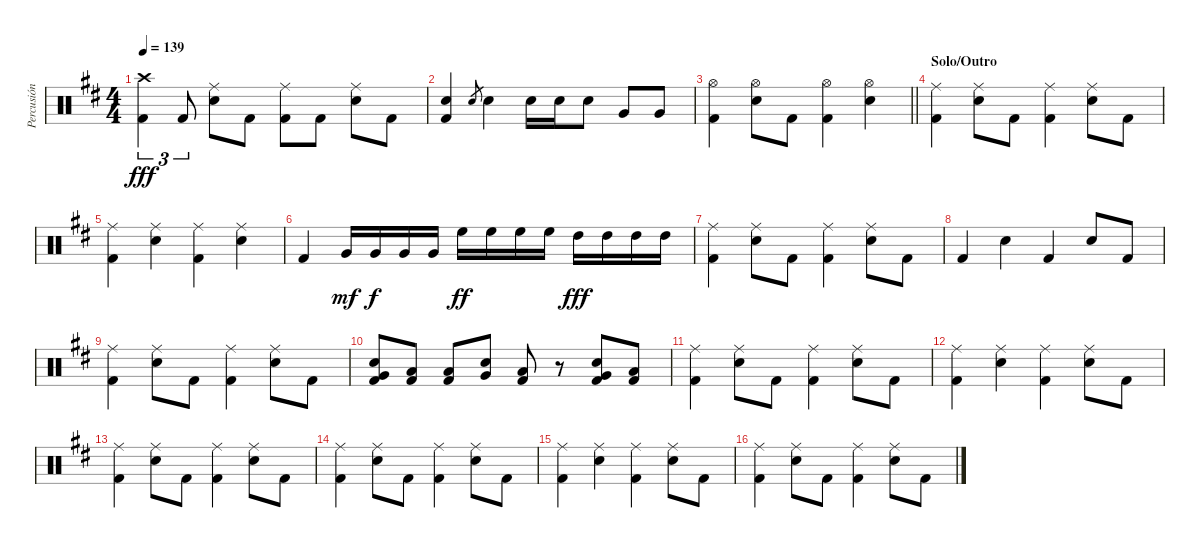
\track ("Percusión" "Percusión") {instrument percussion}
\staff {score}
\articulation defaults
\ts (4 4)
\tempo 139
\clef neutral
\ks d
("Crash high (hit)" "Kick (hit) 2").4{tu (3 2) dy fff} "Kick (hit) 2".8{tu (3 2)} ("Ride (middle)" "Electric Snare (hit)").8 "Kick (hit) 2".8 ("Ride (middle)" "Kick (hit) 2").8 "Kick (hit) 2".8 ("Ride (middle)" "Electric Snare (hit)").8 "Kick (hit) 2".8 |
("Electric Snare (hit)" "Kick (hit) 2").4 "Electric Snare (hit)".8{gr} "Electric Snare (hit)".4 "Electric Snare (hit)".16 "Electric Snare (hit)".16 "Electric Snare (hit)".8 "Very Low Tom (hit)".8 "Very Low Tom (hit)".8 |
\barLineRight lightlight
("Hi-Hat (open)" "Kick (hit) 2").4 ("Hi-Hat (open)" "Electric Snare (hit)").8 "Kick (hit) 2".8 ("Hi-Hat (open)" "Kick (hit) 2").4 ("Hi-Hat (open)" "Electric Snare (hit)").4 |
\section ("" "Solo/Outro")
("Ride (middle)" "Kick (hit) 2").4 ("Ride (middle)" "Electric Snare (hit)").8 "Kick (hit) 2".8 ("Ride (middle)" "Kick (hit) 2").4 ("Ride (middle)" "Electric Snare (hit)").8 "Kick (hit) 2".8 |
("Ride (middle)" "Kick (hit) 2").4 ("Ride (middle)" "Electric Snare (hit)").4 ("Ride (middle)" "Kick (hit) 2").4 ("Ride (middle)" "Electric Snare (hit)").4 |
"Kick (hit) 2".4 "Very Low Tom (hit)".16{dy mf} "Very Low Tom (hit)".16{dy f} "Very Low Tom (hit)".16 "Very Low Tom (hit)".16 "High Floor Tom (hit)".16{dy ff} "High Floor Tom (hit)".16 "High Floor Tom (hit)".16 "High Floor Tom (hit)".16 "High Tom (hit)".16{dy fff} "High Tom (hit)".16 "High Tom (hit)".16 "High Tom (hit)".16 |
("Ride (middle)" "Kick (hit) 2").4 ("Ride (middle)" "Electric Snare (hit)").8 "Kick (hit) 2".8 ("Ride (middle)" "Kick (hit) 2").4 ("Ride (middle)" "Electric Snare (hit)").8 "Kick (hit) 2".8 |
"Kick (hit) 2".4 "Electric Snare (hit)".4 "Kick (hit) 2".4 "Electric Snare (hit)".8 "Kick (hit) 2".8 |
("Ride (middle)" "Kick (hit) 2").4 ("Ride (middle)" "Electric Snare (hit)").8 "Kick (hit) 2".8 ("Ride (middle)" "Kick (hit) 2").4 ("Ride (middle)" "Electric Snare (hit)").8 "Kick (hit) 2".8 |
("Very Low Tom (hit)" "Kick (hit) 2" "Snare (hit) 2").8 ("Kick (hit) 2" "Low Floor Tom (hit)").8 ("Kick (hit) 2" "Low Floor Tom (hit)").8 ("Very Low Tom (hit)" "Snare (hit) 2").8 ("Kick (hit) 2" "Low Floor Tom (hit)").8 r.8 ("Snare (hit) 2" "Kick (hit) 2" "Very Low Tom (hit)").8 ("Kick (hit) 2" "Low Floor Tom (hit)").8 |
("Ride (middle)" "Kick (hit) 2").4 ("Ride (middle)" "Electric Snare (hit)").8 "Kick (hit) 2".8 ("Ride (middle)" "Kick (hit) 2").4 ("Ride (middle)" "Electric Snare (hit)").8 "Kick (hit) 2".8 |
("Ride (middle)" "Kick (hit) 2").4 ("Ride (middle)" "Electric Snare (hit)").4 ("Ride (middle)" "Kick (hit) 2").4 ("Ride (middle)" "Electric Snare (hit)").8 "Kick (hit) 2".8 |
("Ride (middle)" "Kick (hit) 2").4 ("Ride (middle)" "Electric Snare (hit)").8 "Kick (hit) 2".8 ("Ride (middle)" "Kick (hit) 2").4 ("Ride (middle)" "Electric Snare (hit)").8 "Kick (hit) 2".8 |
("Ride (middle)" "Kick (hit) 2").4 ("Ride (middle)" "Electric Snare (hit)").8 "Kick (hit) 2".8 ("Ride (middle)" "Kick (hit) 2").4 ("Ride (middle)" "Electric Snare (hit)").8 "Kick (hit) 2".8 |
("Ride (middle)" "Kick (hit) 2").4 ("Ride (middle)" "Electric Snare (hit)").4 ("Ride (middle)" "Kick (hit) 2").4 ("Ride (middle)" "Electric Snare (hit)").8 "Kick (hit) 2".8 |
("Ride (middle)" "Kick (hit) 2").4 ("Ride (middle)" "Electric Snare (hit)").8 "Kick (hit) 2".8 ("Ride (middle)" "Kick (hit) 2").4 ("Ride (middle)" "Electric Snare (hit)").8 "Kick (hit) 2".8
